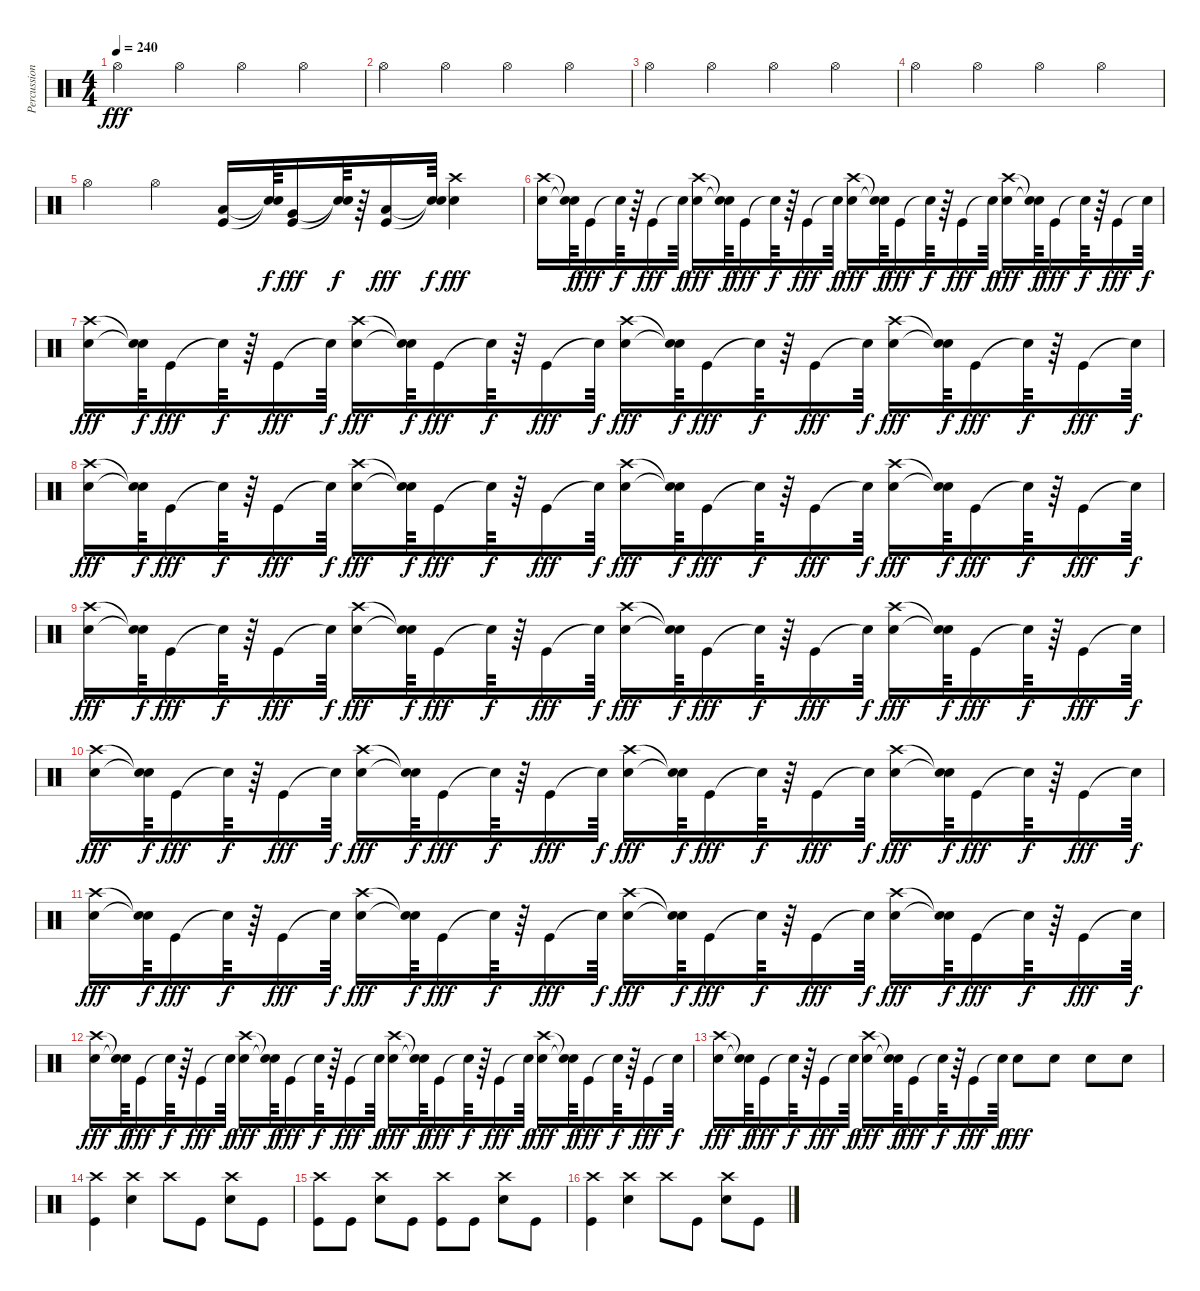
\track ("Percussion" "Percussion") {instrument percussion}
\staff {score}
\articulation defaults
\ts (4 4)
\tempo 240
\clef neutral
\ks c "Hi-Hat (open)".4{dy fff} "Hi-Hat (open)".4 "Hi-Hat (open)".4 "Hi-Hat (open)".4
|
"Hi-Hat (open)".4 "Hi-Hat (open)".4 "Hi-Hat (open)".4 "Hi-Hat (open)".4 |
"Hi-Hat (open)".4 "Hi-Hat (open)".4 "Hi-Hat (open)".4 "Hi-Hat (open)".4 |
"Hi-Hat (open)".4 "Hi-Hat (open)".4 "Hi-Hat (open)".4 "Hi-Hat (open)".4 |
"Hi-Hat (open)".4 "Hi-Hat (open)".4 ("Low Tom (hit)" "Kick (hit)").16 ("Snare (hit)"{t} "Snare (hit)"{t}).64{dy f} ("Very Low Tom (hit)" "Kick (hit)").16{dy fff} ("Snare (hit)"{t} "Snare (hit)"{t}).64{dy f} r.64 ("Low Floor Tom (hit)" "Kick (hit)").16{dy fff} ("Snare (hit)"{t} "Snare (hit)"{t}).64{dy f} ("Crash high (hit)" "Snare (hit) 2").4{dy fff} |
("Crash high (hit)" "Snare (hit) 2").16 ("Snare (hit)"{t} "Snare (hit)"{t}).64{dy f} "Kick (hit)".16{dy fff} "Snare (hit)"{t}.64{dy f} r.64 "Kick (hit)".16{dy fff} "Snare (hit)"{t}.64{dy f} ("Crash high (hit)" "Snare (hit) 2").16{dy fff} ("Snare (hit)"{t} "Snare (hit)"{t}).64{dy f} "Kick (hit)".16{dy fff} "Snare (hit)"{t}.64{dy f} r.64 "Kick (hit)".16{dy fff} "Snare (hit)"{t}.64{dy f} ("Crash high (hit)" "Snare (hit) 2").16{dy fff} ("Snare (hit)"{t} "Snare (hit)"{t}).64{dy f} "Kick (hit)".16{dy fff} "Snare (hit)"{t}.64{dy f} r.64 "Kick (hit)".16{dy fff} "Snare (hit)"{t}.64{dy f} ("Crash high (hit)" "Snare (hit) 2").16{dy fff} ("Snare (hit)"{t} "Snare (hit)"{t}).64{dy f} "Kick (hit)".16{dy fff} "Snare (hit)"{t}.64{dy f} r.64 "Kick (hit)".16{dy fff} "Snare (hit)"{t}.64{dy f} |
("Crash high (hit)" "Snare (hit) 2").16{dy fff} ("Snare (hit)"{t} "Snare (hit)"{t}).64{dy f} "Kick (hit)".16{dy fff} "Snare (hit)"{t}.64{dy f} r.64 "Kick (hit)".16{dy fff} "Snare (hit)"{t}.64{dy f} ("Crash high (hit)" "Snare (hit) 2").16{dy fff} ("Snare (hit)"{t} "Snare (hit)"{t}).64{dy f} "Kick (hit)".16{dy fff} "Snare (hit)"{t}.64{dy f} r.64 "Kick (hit)".16{dy fff} "Snare (hit)"{t}.64{dy f} ("Crash high (hit)" "Snare (hit) 2").16{dy fff} ("Snare (hit)"{t} "Snare (hit)"{t}).64{dy f} "Kick (hit)".16{dy fff} "Snare (hit)"{t}.64{dy f} r.64 "Kick (hit)".16{dy fff} "Snare (hit)"{t}.64{dy f} ("Crash high (hit)" "Snare (hit) 2").16{dy fff} ("Snare (hit)"{t} "Snare (hit)"{t}).64{dy f} "Kick (hit)".16{dy fff} "Snare (hit)"{t}.64{dy f} r.64 "Kick (hit)".16{dy fff} "Snare (hit)"{t}.64{dy f} |
("Crash high (hit)" "Snare (hit) 2").16{dy fff} ("Snare (hit)"{t} "Snare (hit)"{t}).64{dy f} "Kick (hit)".16{dy fff} "Snare (hit)"{t}.64{dy f} r.64 "Kick (hit)".16{dy fff} "Snare (hit)"{t}.64{dy f} ("Crash high (hit)" "Snare (hit) 2").16{dy fff} ("Snare (hit)"{t} "Snare (hit)"{t}).64{dy f} "Kick (hit)".16{dy fff} "Snare (hit)"{t}.64{dy f} r.64 "Kick (hit)".16{dy fff} "Snare (hit)"{t}.64{dy f} ("Crash high (hit)" "Snare (hit) 2").16{dy fff} ("Snare (hit)"{t} "Snare (hit)"{t}).64{dy f} "Kick (hit)".16{dy fff} "Snare (hit)"{t}.64{dy f} r.64 "Kick (hit)".16{dy fff} "Snare (hit)"{t}.64{dy f} ("Crash high (hit)" "Snare (hit) 2").16{dy fff} ("Snare (hit)"{t} "Snare (hit)"{t}).64{dy f} "Kick (hit)".16{dy fff} "Snare (hit)"{t}.64{dy f} r.64 "Kick (hit)".16{dy fff} "Snare (hit)"{t}.64{dy f} |
("Crash high (hit)" "Snare (hit) 2").16{dy fff} ("Snare (hit)"{t} "Snare (hit)"{t}).64{dy f} "Kick (hit)".16{dy fff} "Snare (hit)"{t}.64{dy f} r.64 "Kick (hit)".16{dy fff} "Snare (hit)"{t}.64{dy f} ("Crash high (hit)" "Snare (hit) 2").16{dy fff} ("Snare (hit)"{t} "Snare (hit)"{t}).64{dy f} "Kick (hit)".16{dy fff} "Snare (hit)"{t}.64{dy f} r.64 "Kick (hit)".16{dy fff} "Snare (hit)"{t}.64{dy f} ("Crash high (hit)" "Snare (hit) 2").16{dy fff} ("Snare (hit)"{t} "Snare (hit)"{t}).64{dy f} "Kick (hit)".16{dy fff} "Snare (hit)"{t}.64{dy f} r.64 "Kick (hit)".16{dy fff} "Snare (hit)"{t}.64{dy f} ("Crash high (hit)" "Snare (hit) 2").16{dy fff} ("Snare (hit)"{t} "Snare (hit)"{t}).64{dy f} "Kick (hit)".16{dy fff} "Snare (hit)"{t}.64{dy f} r.64 "Kick (hit)".16{dy fff} "Snare (hit)"{t}.64{dy f} |
("Crash high (hit)" "Snare (hit) 2").16{dy fff} ("Snare (hit)"{t} "Snare (hit)"{t}).64{dy f} "Kick (hit)".16{dy fff} "Snare (hit)"{t}.64{dy f} r.64 "Kick (hit)".16{dy fff} "Snare (hit)"{t}.64{dy f} ("Crash high (hit)" "Snare (hit) 2").16{dy fff} ("Snare (hit)"{t} "Snare (hit)"{t}).64{dy f} "Kick (hit)".16{dy fff} "Snare (hit)"{t}.64{dy f} r.64 "Kick (hit)".16{dy fff} "Snare (hit)"{t}.64{dy f} ("Crash high (hit)" "Snare (hit) 2").16{dy fff} ("Snare (hit)"{t} "Snare (hit)"{t}).64{dy f} "Kick (hit)".16{dy fff} "Snare (hit)"{t}.64{dy f} r.64 "Kick (hit)".16{dy fff} "Snare (hit)"{t}.64{dy f} ("Crash high (hit)" "Snare (hit) 2").16{dy fff} ("Snare (hit)"{t} "Snare (hit)"{t}).64{dy f} "Kick (hit)".16{dy fff} "Snare (hit)"{t}.64{dy f} r.64 "Kick (hit)".16{dy fff} "Snare (hit)"{t}.64{dy f} |
("Crash high (hit)" "Snare (hit) 2").16{dy fff} ("Snare (hit)"{t} "Snare (hit)"{t}).64{dy f} "Kick (hit)".16{dy fff} "Snare (hit)"{t}.64{dy f} r.64 "Kick (hit)".16{dy fff} "Snare (hit)"{t}.64{dy f} ("Crash high (hit)" "Snare (hit) 2").16{dy fff} ("Snare (hit)"{t} "Snare (hit)"{t}).64{dy f} "Kick (hit)".16{dy fff} "Snare (hit)"{t}.64{dy f} r.64 "Kick (hit)".16{dy fff} "Snare (hit)"{t}.64{dy f} ("Crash high (hit)" "Snare (hit) 2").16{dy fff} ("Snare (hit)"{t} "Snare (hit)"{t}).64{dy f} "Kick (hit)".16{dy fff} "Snare (hit)"{t}.64{dy f} r.64 "Kick (hit)".16{dy fff} "Snare (hit)"{t}.64{dy f} ("Crash high (hit)" "Snare (hit) 2").16{dy fff} ("Snare (hit)"{t} "Snare (hit)"{t}).64{dy f} "Kick (hit)".16{dy fff} "Snare (hit)"{t}.64{dy f} r.64 "Kick (hit)".16{dy fff} "Snare (hit)"{t}.64{dy f} |
("Crash high (hit)" "Snare (hit) 2").16{dy fff} ("Snare (hit)"{t} "Snare (hit)"{t}).64{dy f} "Kick (hit)".16{dy fff} "Snare (hit)"{t}.64{dy f} r.64 "Kick (hit)".16{dy fff} "Snare (hit)"{t}.64{dy f} ("Crash high (hit)" "Snare (hit) 2").16{dy fff} ("Snare (hit)"{t} "Snare (hit)"{t}).64{dy f} "Kick (hit)".16{dy fff} "Snare (hit)"{t}.64{dy f} r.64 "Kick (hit)".16{dy fff} "Snare (hit)"{t}.64{dy f} ("Crash high (hit)" "Snare (hit) 2").16{dy fff} ("Snare (hit)"{t} "Snare (hit)"{t}).64{dy f} "Kick (hit)".16{dy fff} "Snare (hit)"{t}.64{dy f} r.64 "Kick (hit)".16{dy fff} "Snare (hit)"{t}.64{dy f} ("Crash high (hit)" "Snare (hit) 2").16{dy fff} ("Snare (hit)"{t} "Snare (hit)"{t}).64{dy f} "Kick (hit)".16{dy fff} "Snare (hit)"{t}.64{dy f} r.64 "Kick (hit)".16{dy fff} "Snare (hit)"{t}.64{dy f} |
("Crash high (hit)" "Snare (hit) 2").16{dy fff} ("Snare (hit)"{t} "Snare (hit)"{t}).64{dy f} "Kick (hit)".16{dy fff} "Snare (hit)"{t}.64{dy f} r.64 "Kick (hit)".16{dy fff} "Snare (hit)"{t}.64{dy f} ("Crash high (hit)" "Snare (hit) 2").16{dy fff} ("Snare (hit)"{t} "Snare (hit)"{t}).64{dy f} "Kick (hit)".16{dy fff} "Snare (hit)"{t}.64{dy f} r.64 "Kick (hit)".16{dy fff} "Snare (hit)"{t}.64{dy f} "Snare (hit) 2".8{dy fff} "Snare (hit) 2".8 "Snare (hit) 2".8 "Snare (hit) 2".8 |
("Crash high (hit)" "Kick (hit)").4 ("Crash high (hit)" "Snare (hit) 2").4 "Crash high (hit)".8 "Kick (hit)".8 ("Crash high (hit)" "Snare (hit) 2").8 "Kick (hit)".8 |
("Crash high (hit)" "Kick (hit)").8 "Kick (hit)".8 ("Crash high (hit)" "Snare (hit) 2").8 "Kick (hit)".8 ("Crash high (hit)" "Kick (hit)").8 "Kick (hit)".8 ("Crash high (hit)" "Snare (hit) 2").8 "Kick (hit)".8 |
("Crash high (hit)" "Kick (hit)").4 ("Crash high (hit)" "Snare (hit) 2").4 "Crash high (hit)".8 "Kick (hit)".8 ("Crash high (hit)" "Snare (hit) 2").8 "Kick (hit)".8
